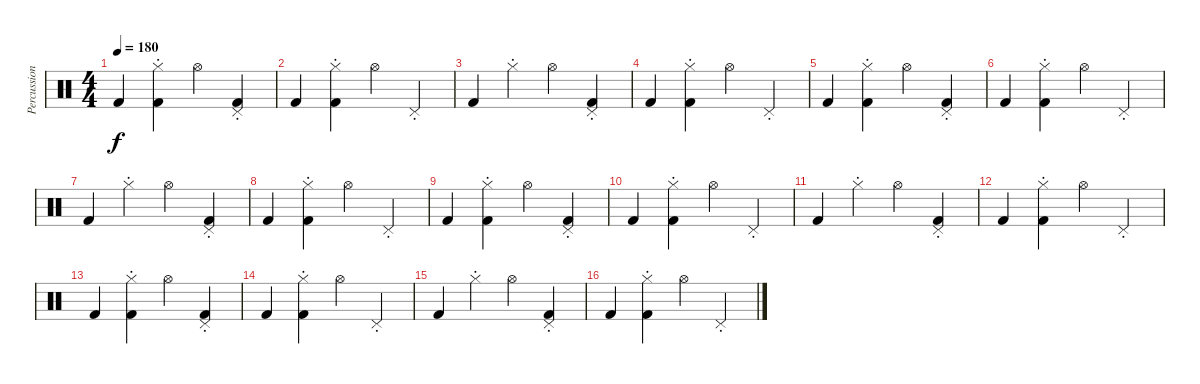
\track ("Percussion" "Percussion") {instrument percussion}
\staff {score}
\articulation defaults
\ts (4 4)
\tempo 180
\clef neutral
\ks c "Kick (hit) 2".4{dy f}
("Hi-Hat (closed)"{st} "Kick (hit) 2").4 "Hi-Hat (open)".4 ("Pedal Hi-Hat (hit)"{st} "Kick (hit) 2").4 |
"Kick (hit) 2".4 ("Hi-Hat (closed)"{st} "Kick (hit) 2").4 "Hi-Hat (open)".4 "Pedal Hi-Hat (hit)"{st}.4 |
"Kick (hit) 2".4 "Hi-Hat (closed)"{st}.4 "Hi-Hat (open)".4 ("Pedal Hi-Hat (hit)"{st} "Kick (hit) 2").4 |
"Kick (hit) 2".4 ("Hi-Hat (closed)"{st} "Kick (hit) 2").4 "Hi-Hat (open)".4 "Pedal Hi-Hat (hit)"{st}.4 |
"Kick (hit) 2".4 ("Hi-Hat (closed)"{st} "Kick (hit) 2").4 "Hi-Hat (open)".4 ("Pedal Hi-Hat (hit)"{st} "Kick (hit) 2").4 |
"Kick (hit) 2".4 ("Hi-Hat (closed)"{st} "Kick (hit) 2").4 "Hi-Hat (open)".4 "Pedal Hi-Hat (hit)"{st}.4 |
"Kick (hit) 2".4 "Hi-Hat (closed)"{st}.4 "Hi-Hat (open)".4 ("Pedal Hi-Hat (hit)"{st} "Kick (hit) 2").4 |
"Kick (hit) 2".4 ("Hi-Hat (closed)"{st} "Kick (hit) 2").4 "Hi-Hat (open)".4 "Pedal Hi-Hat (hit)"{st}.4 |
"Kick (hit) 2".4 ("Hi-Hat (closed)"{st} "Kick (hit) 2").4 "Hi-Hat (open)".4 ("Pedal Hi-Hat (hit)"{st} "Kick (hit) 2").4 |
"Kick (hit) 2".4 ("Hi-Hat (closed)"{st} "Kick (hit) 2").4 "Hi-Hat (open)".4 "Pedal Hi-Hat (hit)"{st}.4 |
"Kick (hit) 2".4 "Hi-Hat (closed)"{st}.4 "Hi-Hat (open)".4 ("Pedal Hi-Hat (hit)"{st} "Kick (hit) 2").4 |
"Kick (hit) 2".4 ("Hi-Hat (closed)"{st} "Kick (hit) 2").4 "Hi-Hat (open)".4 "Pedal Hi-Hat (hit)"{st}.4 |
"Kick (hit) 2".4 ("Hi-Hat (closed)"{st} "Kick (hit) 2").4 "Hi-Hat (open)".4 ("Pedal Hi-Hat (hit)"{st} "Kick (hit) 2").4 |
"Kick (hit) 2".4 ("Hi-Hat (closed)"{st} "Kick (hit) 2").4 "Hi-Hat (open)".4 "Pedal Hi-Hat (hit)"{st}.4 |
"Kick (hit) 2".4 "Hi-Hat (closed)"{st}.4 "Hi-Hat (open)".4 ("Pedal Hi-Hat (hit)"{st} "Kick (hit) 2").4 |
"Kick (hit) 2".4 ("Hi-Hat (closed)"{st} "Kick (hit) 2").4 "Hi-Hat (open)".4 "Pedal Hi-Hat (hit)"{st}.4
